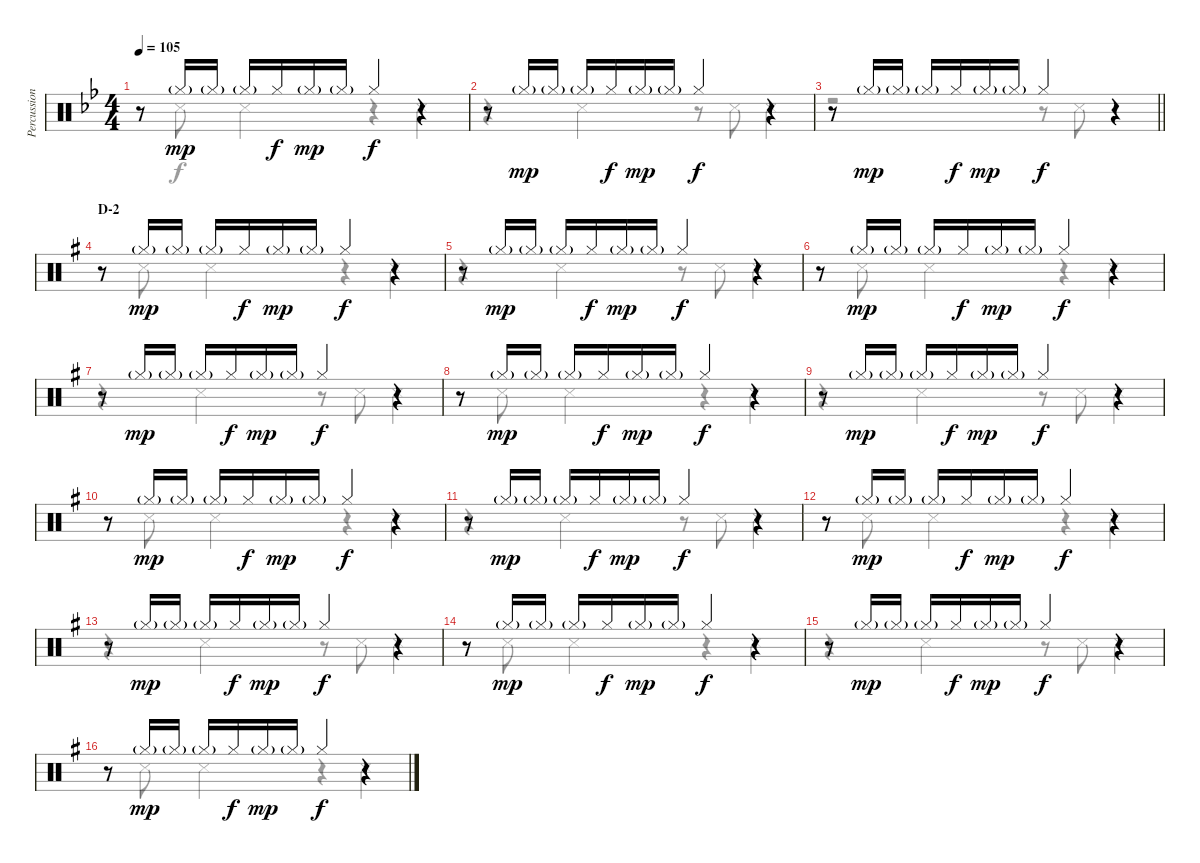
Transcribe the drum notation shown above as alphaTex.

\track ("Percussion" "Percussion") {instrument percussion}
\staff {score}
\articulation defaults
\voice
\ts (4 4)
\tempo 105
\clef neutral
\ks bb
r.8{dy f} "Hi-Hat (closed)"{g}.16{dy mp} "Hi-Hat (closed)"{g}.16 "Hi-Hat (closed)"{g}.16 "Hi-Hat (closed)".16{dy f} "Hi-Hat (closed)"{g}.16{dy mp} "Hi-Hat (closed)"{g}.16 "Hi-Hat (closed)".4{dy f} r.4 |
r.8 "Hi-Hat (closed)"{g}.16{dy mp} "Hi-Hat (closed)"{g}.16 "Hi-Hat (closed)"{g}.16 "Hi-Hat (closed)".16{dy f} "Hi-Hat (closed)"{g}.16{dy mp} "Hi-Hat (closed)"{g}.16 "Hi-Hat (closed)".4{dy f} r.4 |
\barLineRight lightlight
r.8 "Hi-Hat (closed)"{g}.16{dy mp} "Hi-Hat (closed)"{g}.16 "Hi-Hat (closed)"{g}.16 "Hi-Hat (closed)".16{dy f} "Hi-Hat (closed)"{g}.16{dy mp} "Hi-Hat (closed)"{g}.16 "Hi-Hat (closed)".4{dy f} r.4 |
\section ("" "D-2")
\ks g
r.8 "Hi-Hat (closed)"{g}.16{dy mp} "Hi-Hat (closed)"{g}.16 "Hi-Hat (closed)"{g}.16 "Hi-Hat (closed)".16{dy f} "Hi-Hat (closed)"{g}.16{dy mp} "Hi-Hat (closed)"{g}.16 "Hi-Hat (closed)".4{dy f} r.4 |
r.8 "Hi-Hat (closed)"{g}.16{dy mp} "Hi-Hat (closed)"{g}.16 "Hi-Hat (closed)"{g}.16 "Hi-Hat (closed)".16{dy f} "Hi-Hat (closed)"{g}.16{dy mp} "Hi-Hat (closed)"{g}.16 "Hi-Hat (closed)".4{dy f} r.4 |
r.8 "Hi-Hat (closed)"{g}.16{dy mp} "Hi-Hat (closed)"{g}.16 "Hi-Hat (closed)"{g}.16 "Hi-Hat (closed)".16{dy f} "Hi-Hat (closed)"{g}.16{dy mp} "Hi-Hat (closed)"{g}.16 "Hi-Hat (closed)".4{dy f} r.4 |
r.8 "Hi-Hat (closed)"{g}.16{dy mp} "Hi-Hat (closed)"{g}.16 "Hi-Hat (closed)"{g}.16 "Hi-Hat (closed)".16{dy f} "Hi-Hat (closed)"{g}.16{dy mp} "Hi-Hat (closed)"{g}.16 "Hi-Hat (closed)".4{dy f} r.4 |
r.8 "Hi-Hat (closed)"{g}.16{dy mp} "Hi-Hat (closed)"{g}.16 "Hi-Hat (closed)"{g}.16 "Hi-Hat (closed)".16{dy f} "Hi-Hat (closed)"{g}.16{dy mp} "Hi-Hat (closed)"{g}.16 "Hi-Hat (closed)".4{dy f} r.4 |
r.8 "Hi-Hat (closed)"{g}.16{dy mp} "Hi-Hat (closed)"{g}.16 "Hi-Hat (closed)"{g}.16 "Hi-Hat (closed)".16{dy f} "Hi-Hat (closed)"{g}.16{dy mp} "Hi-Hat (closed)"{g}.16 "Hi-Hat (closed)".4{dy f} r.4 |
r.8 "Hi-Hat (closed)"{g}.16{dy mp} "Hi-Hat (closed)"{g}.16 "Hi-Hat (closed)"{g}.16 "Hi-Hat (closed)".16{dy f} "Hi-Hat (closed)"{g}.16{dy mp} "Hi-Hat (closed)"{g}.16 "Hi-Hat (closed)".4{dy f} r.4 |
r.8 "Hi-Hat (closed)"{g}.16{dy mp} "Hi-Hat (closed)"{g}.16 "Hi-Hat (closed)"{g}.16 "Hi-Hat (closed)".16{dy f} "Hi-Hat (closed)"{g}.16{dy mp} "Hi-Hat (closed)"{g}.16 "Hi-Hat (closed)".4{dy f} r.4 |
r.8 "Hi-Hat (closed)"{g}.16{dy mp} "Hi-Hat (closed)"{g}.16 "Hi-Hat (closed)"{g}.16 "Hi-Hat (closed)".16{dy f} "Hi-Hat (closed)"{g}.16{dy mp} "Hi-Hat (closed)"{g}.16 "Hi-Hat (closed)".4{dy f} r.4 |
r.8 "Hi-Hat (closed)"{g}.16{dy mp} "Hi-Hat (closed)"{g}.16 "Hi-Hat (closed)"{g}.16 "Hi-Hat (closed)".16{dy f} "Hi-Hat (closed)"{g}.16{dy mp} "Hi-Hat (closed)"{g}.16 "Hi-Hat (closed)".4{dy f} r.4 |
r.8 "Hi-Hat (closed)"{g}.16{dy mp} "Hi-Hat (closed)"{g}.16 "Hi-Hat (closed)"{g}.16 "Hi-Hat (closed)".16{dy f} "Hi-Hat (closed)"{g}.16{dy mp} "Hi-Hat (closed)"{g}.16 "Hi-Hat (closed)".4{dy f} r.4 |
r.8 "Hi-Hat (closed)"{g}.16{dy mp} "Hi-Hat (closed)"{g}.16 "Hi-Hat (closed)"{g}.16 "Hi-Hat (closed)".16{dy f} "Hi-Hat (closed)"{g}.16{dy mp} "Hi-Hat (closed)"{g}.16 "Hi-Hat (closed)".4{dy f} r.4 |
r.8 "Hi-Hat (closed)"{g}.16{dy mp} "Hi-Hat (closed)"{g}.16 "Hi-Hat (closed)"{g}.16 "Hi-Hat (closed)".16{dy f} "Hi-Hat (closed)"{g}.16{dy mp} "Hi-Hat (closed)"{g}.16 "Hi-Hat (closed)".4{dy f} r.4
\voice
\clef neutral
\ottava regular
\simile none
\ks bb
r.8{dy f} "Snare (side stick) 3".8 "Snare (side stick) 3".4 r.4 "Snare (side stick) 3".4 |
r.4 "Snare (side stick) 3".4 r.8 "Snare (side stick) 3".8 "Snare (side stick) 3".4 |
\barLineRight lightlight
r.2 r.8 "Snare (side stick) 3".8 r.4 |
\ks g
r.8 "Snare (side stick) 3".8 "Snare (side stick) 3".4 r.4 "Snare (side stick) 3".4 |
r.4 "Snare (side stick) 3".4 r.8 "Snare (side stick) 3".8 "Snare (side stick) 3".4 |
r.8 "Snare (side stick) 3".8 "Snare (side stick) 3".4 r.4 "Snare (side stick) 3".4 |
r.4 "Snare (side stick) 3".4 r.8 "Snare (side stick) 3".8 "Snare (side stick) 3".4 |
r.8 "Snare (side stick) 3".8 "Snare (side stick) 3".4 r.4 "Snare (side stick) 3".4 |
r.4 "Snare (side stick) 3".4 r.8 "Snare (side stick) 3".8 "Snare (side stick) 3".4 |
r.8 "Snare (side stick) 3".8 "Snare (side stick) 3".4 r.4 "Snare (side stick) 3".4 |
r.4 "Snare (side stick) 3".4 r.8 "Snare (side stick) 3".8 "Snare (side stick) 3".4 |
r.8 "Snare (side stick) 3".8 "Snare (side stick) 3".4 r.4 "Snare (side stick) 3".4 |
r.4 "Snare (side stick) 3".4 r.8 "Snare (side stick) 3".8 "Snare (side stick) 3".4 |
r.8 "Snare (side stick) 3".8 "Snare (side stick) 3".4 r.4 "Snare (side stick) 3".4 |
r.4 "Snare (side stick) 3".4 r.8 "Snare (side stick) 3".8 "Snare (side stick) 3".4 |
r.8 "Snare (side stick) 3".8 "Snare (side stick) 3".4 r.4 "Snare (side stick) 3".4
